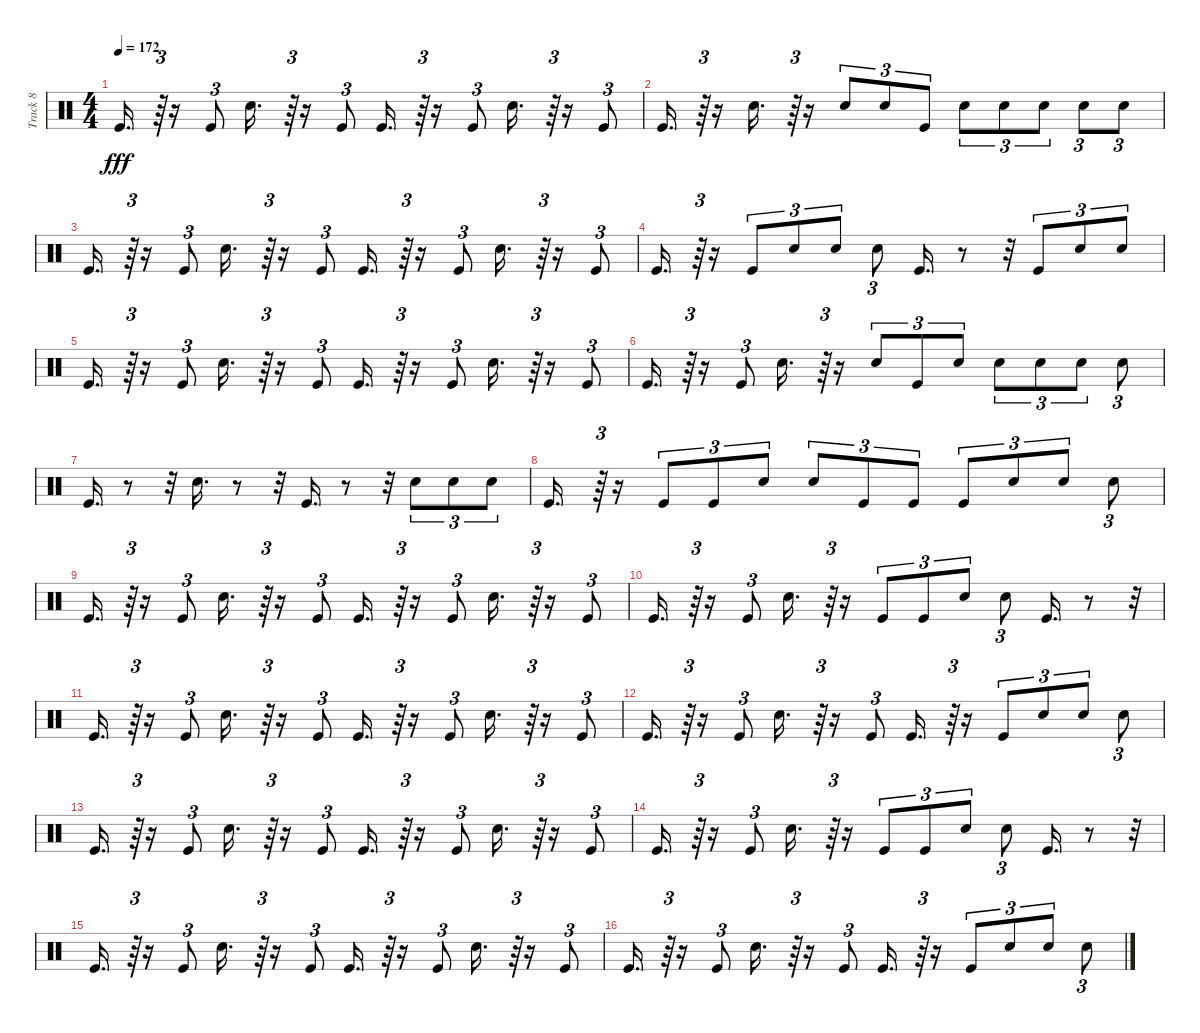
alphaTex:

\track ("Track 8" "Track 8") {instrument percussion}
\staff {score}
\articulation defaults
\ts (4 4)
\tempo 172
\clef neutral
\ks c "Kick (hit)".16{d dy fff}
r.64{tu (3 2)} r.16 "Kick (hit)".8{tu (3 2)} "Snare (hit) 2".16{d} r.64{tu (3 2)} r.16 "Kick (hit)".8{tu (3 2)} "Kick (hit)".16{d} r.64{tu (3 2)} r.16 "Kick (hit)".8{tu (3 2)} "Snare (hit) 2".16{d} r.64{tu (3 2)} r.16 "Kick (hit)".8{tu (3 2)} |
"Kick (hit)".16{d} r.64{tu (3 2)} r.16 "Snare (hit) 2".16{d} r.64{tu (3 2)} r.16 "Snare (hit) 2".8{tu (3 2)} "Snare (hit) 2".8{tu (3 2)} "Kick (hit)".8{tu (3 2)} "Snare (hit) 2".8{tu (3 2)} "Snare (hit) 2".8{tu (3 2)} "Snare (hit) 2".8{tu (3 2)} "Snare (hit) 2".8{tu (3 2)} "Snare (hit) 2".8{tu (3 2)} |
"Kick (hit)".16{d} r.64{tu (3 2)} r.16 "Kick (hit)".8{tu (3 2)} "Snare (hit) 2".16{d} r.64{tu (3 2)} r.16 "Kick (hit)".8{tu (3 2)} "Kick (hit)".16{d} r.64{tu (3 2)} r.16 "Kick (hit)".8{tu (3 2)} "Snare (hit) 2".16{d} r.64{tu (3 2)} r.16 "Kick (hit)".8{tu (3 2)} |
"Kick (hit)".16{d} r.64{tu (3 2)} r.16 "Kick (hit)".8{tu (3 2)} "Snare (hit) 2".8{tu (3 2)} "Snare (hit) 2".8{tu (3 2)} "Snare (hit) 2".8{tu (3 2)} "Kick (hit)".16{d} r.8 r.32 "Kick (hit)".8{tu (3 2)} "Snare (hit) 2".8{tu (3 2)} "Snare (hit) 2".8{tu (3 2)} |
"Kick (hit)".16{d} r.64{tu (3 2)} r.16 "Kick (hit)".8{tu (3 2)} "Snare (hit) 2".16{d} r.64{tu (3 2)} r.16 "Kick (hit)".8{tu (3 2)} "Kick (hit)".16{d} r.64{tu (3 2)} r.16 "Kick (hit)".8{tu (3 2)} "Snare (hit) 2".16{d} r.64{tu (3 2)} r.16 "Kick (hit)".8{tu (3 2)} |
"Kick (hit)".16{d} r.64{tu (3 2)} r.16 "Kick (hit)".8{tu (3 2)} "Snare (hit) 2".16{d} r.64{tu (3 2)} r.16 "Snare (hit) 2".8{tu (3 2)} "Kick (hit)".8{tu (3 2)} "Snare (hit) 2".8{tu (3 2)} "Snare (hit) 2".8{tu (3 2)} "Snare (hit) 2".8{tu (3 2)} "Snare (hit) 2".8{tu (3 2)} "Snare (hit) 2".8{tu (3 2)} |
"Kick (hit)".16{d} r.8 r.32 "Snare (hit) 2".16{d} r.8 r.32 "Kick (hit)".16{d} r.8 r.32 "Snare (hit) 2".8{tu (3 2)} "Snare (hit) 2".8{tu (3 2)} "Snare (hit) 2".8{tu (3 2)} |
"Kick (hit)".16{d} r.64{tu (3 2)} r.16 "Kick (hit)".8{tu (3 2)} "Kick (hit)".8{tu (3 2)} "Snare (hit) 2".8{tu (3 2)} "Snare (hit) 2".8{tu (3 2)} "Kick (hit)".8{tu (3 2)} "Kick (hit)".8{tu (3 2)} "Kick (hit)".8{tu (3 2)} "Snare (hit) 2".8{tu (3 2)} "Snare (hit) 2".8{tu (3 2)} "Snare (hit) 2".8{tu (3 2)} |
"Kick (hit)".16{d} r.64{tu (3 2)} r.16 "Kick (hit)".8{tu (3 2)} "Snare (hit) 2".16{d} r.64{tu (3 2)} r.16 "Kick (hit)".8{tu (3 2)} "Kick (hit)".16{d} r.64{tu (3 2)} r.16 "Kick (hit)".8{tu (3 2)} "Snare (hit) 2".16{d} r.64{tu (3 2)} r.16 "Kick (hit)".8{tu (3 2)} |
"Kick (hit)".16{d} r.64{tu (3 2)} r.16 "Kick (hit)".8{tu (3 2)} "Snare (hit) 2".16{d} r.64{tu (3 2)} r.16 "Kick (hit)".8{tu (3 2)} "Kick (hit)".8{tu (3 2)} "Snare (hit) 2".8{tu (3 2)} "Snare (hit) 2".8{tu (3 2)} "Kick (hit)".16{d} r.8 r.32 |
"Kick (hit)".16{d} r.64{tu (3 2)} r.16 "Kick (hit)".8{tu (3 2)} "Snare (hit) 2".16{d} r.64{tu (3 2)} r.16 "Kick (hit)".8{tu (3 2)} "Kick (hit)".16{d} r.64{tu (3 2)} r.16 "Kick (hit)".8{tu (3 2)} "Snare (hit) 2".16{d} r.64{tu (3 2)} r.16 "Kick (hit)".8{tu (3 2)} |
"Kick (hit)".16{d} r.64{tu (3 2)} r.16 "Kick (hit)".8{tu (3 2)} "Snare (hit) 2".16{d} r.64{tu (3 2)} r.16 "Kick (hit)".8{tu (3 2)} "Kick (hit)".16{d} r.64{tu (3 2)} r.16 "Kick (hit)".8{tu (3 2)} "Snare (hit) 2".8{tu (3 2)} "Snare (hit) 2".8{tu (3 2)} "Snare (hit) 2".8{tu (3 2)} |
"Kick (hit)".16{d} r.64{tu (3 2)} r.16 "Kick (hit)".8{tu (3 2)} "Snare (hit) 2".16{d} r.64{tu (3 2)} r.16 "Kick (hit)".8{tu (3 2)} "Kick (hit)".16{d} r.64{tu (3 2)} r.16 "Kick (hit)".8{tu (3 2)} "Snare (hit) 2".16{d} r.64{tu (3 2)} r.16 "Kick (hit)".8{tu (3 2)} |
"Kick (hit)".16{d} r.64{tu (3 2)} r.16 "Kick (hit)".8{tu (3 2)} "Snare (hit) 2".16{d} r.64{tu (3 2)} r.16 "Kick (hit)".8{tu (3 2)} "Kick (hit)".8{tu (3 2)} "Snare (hit) 2".8{tu (3 2)} "Snare (hit) 2".8{tu (3 2)} "Kick (hit)".16{d} r.8 r.32 |
"Kick (hit)".16{d} r.64{tu (3 2)} r.16 "Kick (hit)".8{tu (3 2)} "Snare (hit) 2".16{d} r.64{tu (3 2)} r.16 "Kick (hit)".8{tu (3 2)} "Kick (hit)".16{d} r.64{tu (3 2)} r.16 "Kick (hit)".8{tu (3 2)} "Snare (hit) 2".16{d} r.64{tu (3 2)} r.16 "Kick (hit)".8{tu (3 2)} |
"Kick (hit)".16{d} r.64{tu (3 2)} r.16 "Kick (hit)".8{tu (3 2)} "Snare (hit) 2".16{d} r.64{tu (3 2)} r.16 "Kick (hit)".8{tu (3 2)} "Kick (hit)".16{d} r.64{tu (3 2)} r.16 "Kick (hit)".8{tu (3 2)} "Snare (hit) 2".8{tu (3 2)} "Snare (hit) 2".8{tu (3 2)} "Snare (hit) 2".8{tu (3 2)}
